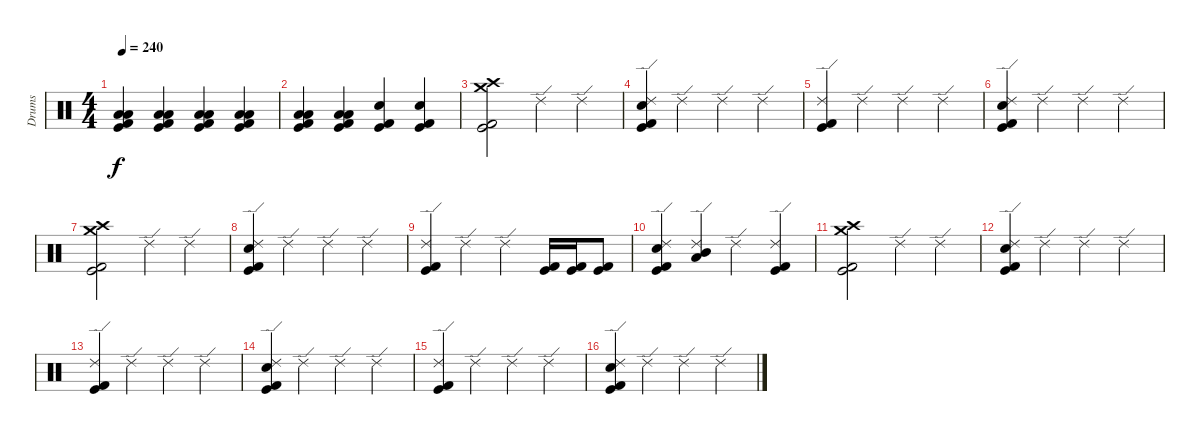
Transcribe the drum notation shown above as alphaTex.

\track ("Drums" "Drums") {instrument percussion}
\staff {score}
\articulation defaults
\ts (4 4)
\tempo 240
\clef neutral
\ks c
("Low Floor Tom (hit)" "Low Tom (hit)" "Kick (hit)" "Kick (hit) 2").4{dy f} ("Low Floor Tom (hit)" "Low Tom (hit)" "Kick (hit)" "Kick (hit) 2").4 ("Low Floor Tom (hit)" "Low Tom (hit)" "Kick (hit)" "Kick (hit) 2").4 ("Low Floor Tom (hit)" "Low Tom (hit)" "Kick (hit)" "Kick (hit) 2").4 |
("Low Floor Tom (hit)" "Low Tom (hit)" "Kick (hit)" "Kick (hit) 2").4 ("Low Floor Tom (hit)" "Low Tom (hit)" "Kick (hit)" "Kick (hit) 2").4 ("Electric Snare (hit)" "Kick (hit)" "Kick (hit) 2").4 ("Electric Snare (hit)" "Kick (hit)" "Kick (hit) 2").4 |
("Crash high (hit)" "Crash medium (hit)" "Kick (hit)" "Kick (hit) 2").2 "Ride (edge) 2".4 "Ride (edge) 2".4 |
("Ride (edge) 2" "Electric Snare (hit)" "Kick (hit)" "Kick (hit) 2").4 "Ride (edge) 2".4 "Ride (edge) 2".4 "Ride (edge) 2".4 |
("Ride (edge) 2" "Kick (hit)" "Kick (hit) 2").4 "Ride (edge) 2".4 "Ride (edge) 2".4 "Ride (edge) 2".4 |
("Ride (edge) 2" "Electric Snare (hit)" "Kick (hit)" "Kick (hit) 2").4 "Ride (edge) 2".4 "Ride (edge) 2".4 "Ride (edge) 2".4 |
("Crash high (hit)" "Crash medium (hit)" "Kick (hit)" "Kick (hit) 2").2 "Ride (edge) 2".4 "Ride (edge) 2".4 |
("Ride (edge) 2" "Electric Snare (hit)" "Kick (hit)" "Kick (hit) 2").4 "Ride (edge) 2".4 "Ride (edge) 2".4 "Ride (edge) 2".4 |
("Ride (edge) 2" "Kick (hit)" "Kick (hit) 2").4 "Ride (edge) 2".4 "Ride (edge) 2".4 ("Kick (hit)" "Kick (hit) 2").16 ("Kick (hit)" "Kick (hit) 2").16 ("Kick (hit)" "Kick (hit) 2").8 |
("Ride (edge) 2" "Electric Snare (hit)" "Kick (hit)" "Kick (hit) 2").4 ("Ride (edge) 2" "Mid Tom (hit)" "Low Tom (hit)").4 "Ride (edge) 2".4 ("Ride (edge) 2" "Kick (hit)" "Kick (hit) 2").4 |
("Crash high (hit)" "Crash medium (hit)" "Kick (hit)" "Kick (hit) 2").2 "Ride (edge) 2".4 "Ride (edge) 2".4 |
("Ride (edge) 2" "Electric Snare (hit)" "Kick (hit)" "Kick (hit) 2").4 "Ride (edge) 2".4 "Ride (edge) 2".4 "Ride (edge) 2".4 |
("Ride (edge) 2" "Kick (hit)" "Kick (hit) 2").4 "Ride (edge) 2".4 "Ride (edge) 2".4 "Ride (edge) 2".4 |
("Ride (edge) 2" "Electric Snare (hit)" "Kick (hit)" "Kick (hit) 2").4 "Ride (edge) 2".4 "Ride (edge) 2".4 "Ride (edge) 2".4 |
("Ride (edge) 2" "Kick (hit)" "Kick (hit) 2").4 "Ride (edge) 2".4 "Ride (edge) 2".4 "Ride (edge) 2".4 |
("Ride (edge) 2" "Electric Snare (hit)" "Kick (hit)" "Kick (hit) 2").4 "Ride (edge) 2".4 "Ride (edge) 2".4 "Ride (edge) 2".4
